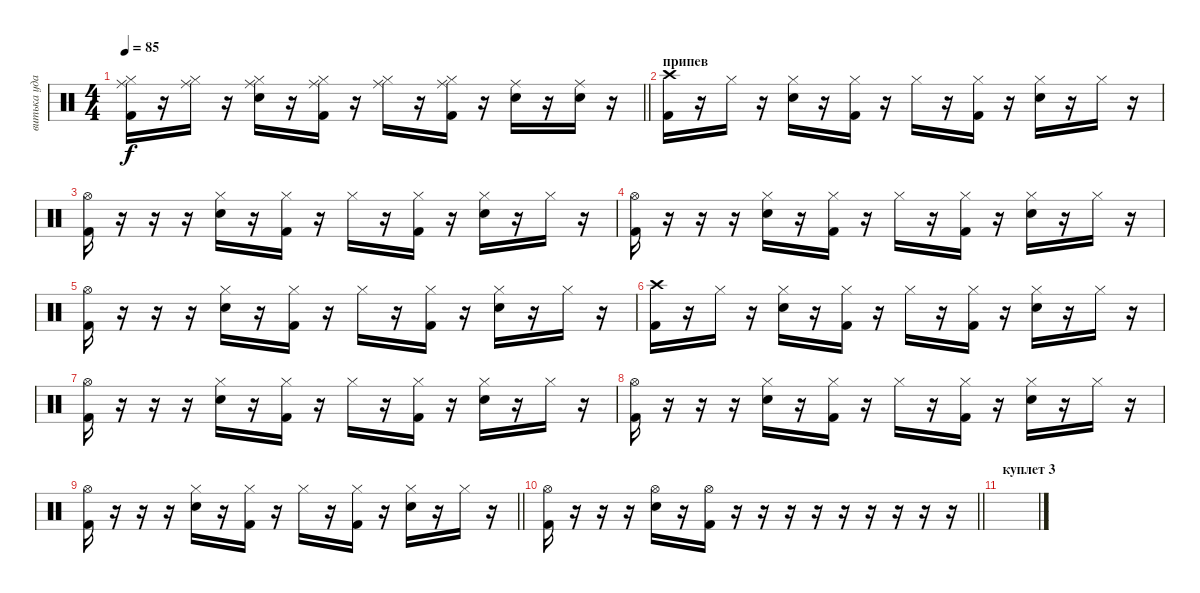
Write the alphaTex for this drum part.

\track ("витька ударные" "витька уда") {instrument percussion}
\staff {score}
\articulation defaults
\ts (4 4)
\tempo 85
\clef neutral
\barLineRight lightlight
\ks c
("Kick (hit) 2" "Ride (middle)" "Hi-Hat (closed)").16{dy f} r.16 ("Ride (middle)" "Hi-Hat (closed)").16 r.16 ("Snare (hit) 2" "Ride (middle)" "Hi-Hat (closed)").16 r.16 ("Kick (hit) 2" "Ride (middle)" "Hi-Hat (closed)").16 r.16 ("Ride (middle)" "Hi-Hat (closed)").16 r.16 ("Kick (hit) 2" "Ride (middle)" "Hi-Hat (closed)").16 r.16 ("Snare (hit) 2" "Ride (middle)").16 r.16 ("Snare (hit) 2" "Ride (middle)").16 r.16 |
\section ("" "припев")
("Kick (hit) 2" "Crash high (hit)").16 r.16 "Hi-Hat (closed)".16 r.16 ("Snare (hit) 2" "Hi-Hat (closed)").16 r.16 ("Kick (hit) 2" "Hi-Hat (closed)").16 r.16 "Hi-Hat (closed)".16 r.16 ("Kick (hit) 2" "Hi-Hat (closed)").16 r.16 ("Snare (hit) 2" "Hi-Hat (closed)").16 r.16 "Hi-Hat (closed)".16 r.16 |
("Kick (hit) 2" "Hi-Hat (open)").16 r.16 r.16 r.16 ("Snare (hit) 2" "Hi-Hat (closed)").16 r.16 ("Kick (hit) 2" "Hi-Hat (closed)").16 r.16 "Hi-Hat (closed)".16 r.16 ("Kick (hit) 2" "Hi-Hat (closed)").16 r.16 ("Snare (hit) 2" "Hi-Hat (closed)").16 r.16 "Hi-Hat (closed)".16 r.16 |
("Kick (hit) 2" "Hi-Hat (open)").16 r.16 r.16 r.16 ("Snare (hit) 2" "Hi-Hat (closed)").16 r.16 ("Kick (hit) 2" "Hi-Hat (closed)").16 r.16 "Hi-Hat (closed)".16 r.16 ("Kick (hit) 2" "Hi-Hat (closed)").16 r.16 ("Snare (hit) 2" "Hi-Hat (closed)").16 r.16 "Hi-Hat (closed)".16 r.16 |
("Kick (hit) 2" "Hi-Hat (open)").16 r.16 r.16 r.16 ("Snare (hit) 2" "Hi-Hat (closed)").16 r.16 ("Kick (hit) 2" "Hi-Hat (closed)").16 r.16 "Hi-Hat (closed)".16 r.16 ("Kick (hit) 2" "Hi-Hat (closed)").16 r.16 ("Snare (hit) 2" "Hi-Hat (closed)").16 r.16 "Hi-Hat (closed)".16 r.16 |
("Kick (hit) 2" "Crash high (hit)").16 r.16 "Hi-Hat (closed)".16 r.16 ("Snare (hit) 2" "Hi-Hat (closed)").16 r.16 ("Kick (hit) 2" "Hi-Hat (closed)").16 r.16 "Hi-Hat (closed)".16 r.16 ("Kick (hit) 2" "Hi-Hat (closed)").16 r.16 ("Snare (hit) 2" "Hi-Hat (closed)").16 r.16 "Hi-Hat (closed)".16 r.16 |
("Kick (hit) 2" "Hi-Hat (open)").16 r.16 r.16 r.16 ("Snare (hit) 2" "Hi-Hat (closed)").16 r.16 ("Kick (hit) 2" "Hi-Hat (closed)").16 r.16 "Hi-Hat (closed)".16 r.16 ("Kick (hit) 2" "Hi-Hat (closed)").16 r.16 ("Snare (hit) 2" "Hi-Hat (closed)").16 r.16 "Hi-Hat (closed)".16 r.16 |
("Kick (hit) 2" "Hi-Hat (open)").16 r.16 r.16 r.16 ("Snare (hit) 2" "Hi-Hat (closed)").16 r.16 ("Kick (hit) 2" "Hi-Hat (closed)").16 r.16 "Hi-Hat (closed)".16 r.16 ("Kick (hit) 2" "Hi-Hat (closed)").16 r.16 ("Snare (hit) 2" "Hi-Hat (closed)").16 r.16 "Hi-Hat (closed)".16 r.16 |
\barLineRight lightlight
("Kick (hit) 2" "Hi-Hat (open)").16 r.16 r.16 r.16 ("Snare (hit) 2" "Hi-Hat (closed)").16 r.16 ("Kick (hit) 2" "Hi-Hat (closed)").16 r.16 "Hi-Hat (closed)".16 r.16 ("Kick (hit) 2" "Hi-Hat (closed)").16 r.16 ("Snare (hit) 2" "Hi-Hat (closed)").16 r.16 "Hi-Hat (closed)".16 r.16 |
\barLineRight lightlight
("Kick (hit) 2" "Hi-Hat (open)").16 r.16 r.16 r.16 ("Snare (hit) 2" "Hi-Hat (open)").16 r.16 ("Kick (hit) 2" "Hi-Hat (open)").16 r.16 r.16 r.16 r.16 r.16 r.16 r.16 r.16 r.16 |
\section ("" "куплет 3")
